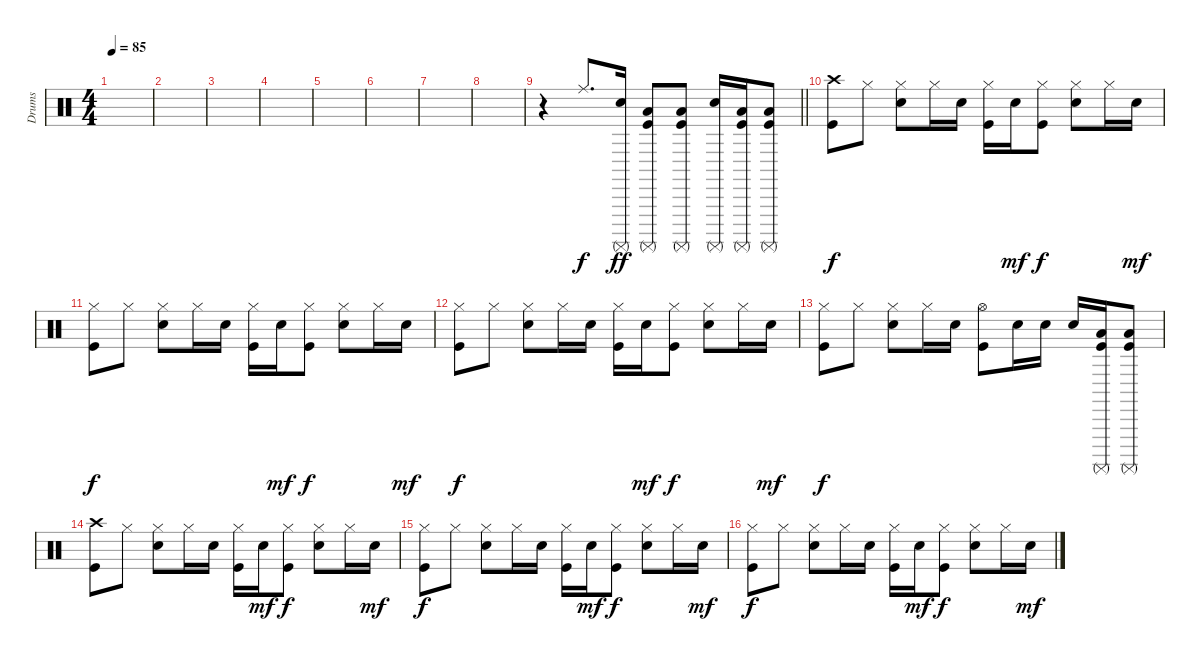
\track ("Drums" "Drums") {instrument percussion}
\staff {score}
\articulation defaults
\ts (4 4)
\tempo 85
\clef neutral
\ks c
|
|
|
|
|
|
|
|
\barLineRight lightlight
r.4 "Ride (middle)".8{d} ("Surdo (mute)" "Snare (hit) 2").16{dy ff} ("Surdo (mute)" "Low Floor Tom (hit)" "Kick (hit)").8 ("Surdo (mute)" "Low Floor Tom (hit)" "Kick (hit)").8 ("Surdo (mute)" "Snare (hit) 2").16 ("Surdo (mute)" "Low Floor Tom (hit)" "Kick (hit)").16 ("Surdo (mute)" "Low Floor Tom (hit)" "Kick (hit)").8 |
("Crash high (hit)" "Kick (hit)").8{dy f} "Hi-Hat (closed)".8 ("Hi-Hat (closed)" "Snare (hit) 2").8 "Hi-Hat (closed)".16 "Snare (hit) 2".16 ("Hi-Hat (closed)" "Kick (hit)").16 "Snare (hit) 2".16{dy mf} ("Hi-Hat (closed)" "Kick (hit)").8{dy f} ("Hi-Hat (closed)" "Snare (hit) 2").8 "Hi-Hat (closed)".16 "Snare (hit) 2".16{dy mf} |
("Hi-Hat (closed)" "Kick (hit)").8{dy f} "Hi-Hat (closed)".8 ("Hi-Hat (closed)" "Snare (hit) 2").8 "Hi-Hat (closed)".16 "Snare (hit) 2".16 ("Hi-Hat (closed)" "Kick (hit)").16 "Snare (hit) 2".16{dy mf} ("Hi-Hat (closed)" "Kick (hit)").8{dy f} ("Hi-Hat (closed)" "Snare (hit) 2").8 "Hi-Hat (closed)".16 "Snare (hit) 2".16{dy mf} |
("Hi-Hat (closed)" "Kick (hit)").8{dy f} "Hi-Hat (closed)".8 ("Hi-Hat (closed)" "Snare (hit) 2").8 "Hi-Hat (closed)".16 "Snare (hit) 2".16 ("Hi-Hat (closed)" "Kick (hit)").16 "Snare (hit) 2".16{dy mf} ("Hi-Hat (closed)" "Kick (hit)").8{dy f} ("Hi-Hat (closed)" "Snare (hit) 2").8 "Hi-Hat (closed)".16 "Snare (hit) 2".16{dy mf} |
("Hi-Hat (closed)" "Kick (hit)").8{dy f} "Hi-Hat (closed)".8 ("Hi-Hat (closed)" "Snare (hit) 2").8 "Hi-Hat (closed)".16 "Snare (hit) 2".16 ("Hi-Hat (open)" "Kick (hit)").8 "Snare (hit) 2".16 "Snare (hit) 2".16 "Snare (hit) 2".16 ("Surdo (mute)" "Low Floor Tom (hit)" "Kick (hit)").16 ("Surdo (mute)" "Low Floor Tom (hit)" "Kick (hit)").8 |
("Crash high (hit)" "Kick (hit)").8 "Hi-Hat (closed)".8 ("Hi-Hat (closed)" "Snare (hit) 2").8 "Hi-Hat (closed)".16 "Snare (hit) 2".16 ("Hi-Hat (closed)" "Kick (hit)").16 "Snare (hit) 2".16{dy mf} ("Hi-Hat (closed)" "Kick (hit)").8{dy f} ("Hi-Hat (closed)" "Snare (hit) 2").8 "Hi-Hat (closed)".16 "Snare (hit) 2".16{dy mf} |
("Hi-Hat (closed)" "Kick (hit)").8{dy f} "Hi-Hat (closed)".8 ("Hi-Hat (closed)" "Snare (hit) 2").8 "Hi-Hat (closed)".16 "Snare (hit) 2".16 ("Hi-Hat (closed)" "Kick (hit)").16 "Snare (hit) 2".16{dy mf} ("Hi-Hat (closed)" "Kick (hit)").8{dy f} ("Hi-Hat (closed)" "Snare (hit) 2").8 "Hi-Hat (closed)".16 "Snare (hit) 2".16{dy mf} |
("Hi-Hat (closed)" "Kick (hit)").8{dy f} "Hi-Hat (closed)".8 ("Hi-Hat (closed)" "Snare (hit) 2").8 "Hi-Hat (closed)".16 "Snare (hit) 2".16 ("Hi-Hat (closed)" "Kick (hit)").16 "Snare (hit) 2".16{dy mf} ("Hi-Hat (closed)" "Kick (hit)").8{dy f} ("Hi-Hat (closed)" "Snare (hit) 2").8 "Hi-Hat (closed)".16 "Snare (hit) 2".16{dy mf}
